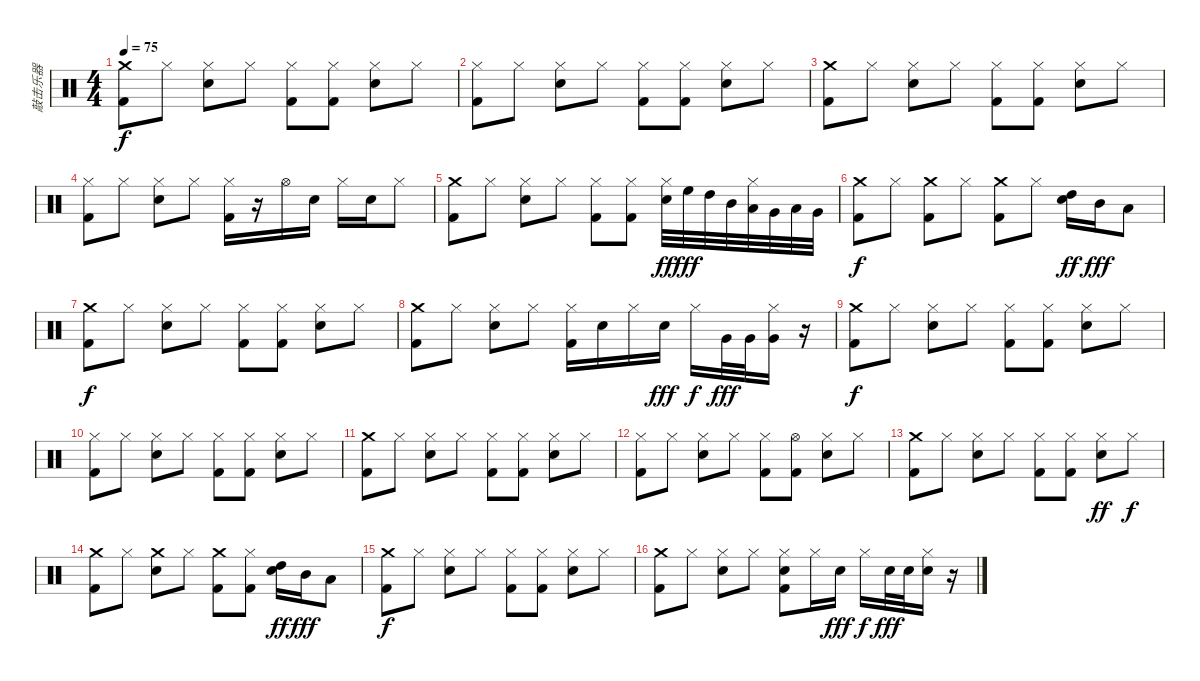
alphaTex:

\track ("敲击乐器" "敲击乐器") {instrument percussion}
\staff {score}
\articulation defaults
\ts (4 4)
\tempo 75
\clef neutral
\ks c
("Crash medium (hit)" "Kick (hit) 2").8{dy f} "Hi-Hat (closed)".8 ("Hi-Hat (closed)" "Electric Snare (hit)").8 "Hi-Hat (closed)".8 ("Hi-Hat (closed)" "Kick (hit) 2").8 ("Hi-Hat (closed)" "Kick (hit) 2").8 ("Hi-Hat (closed)" "Electric Snare (hit)").8 "Hi-Hat (closed)".8 |
("Hi-Hat (closed)" "Kick (hit) 2").8 "Hi-Hat (closed)".8 ("Hi-Hat (closed)" "Electric Snare (hit)").8 "Hi-Hat (closed)".8 ("Hi-Hat (closed)" "Kick (hit) 2").8 ("Hi-Hat (closed)" "Kick (hit) 2").8 ("Hi-Hat (closed)" "Electric Snare (hit)").8 "Hi-Hat (closed)".8 |
("Crash medium (hit)" "Kick (hit) 2").8 "Hi-Hat (closed)".8 ("Hi-Hat (closed)" "Electric Snare (hit)").8 "Hi-Hat (closed)".8 ("Hi-Hat (closed)" "Kick (hit) 2").8 ("Hi-Hat (closed)" "Kick (hit) 2").8 ("Hi-Hat (closed)" "Electric Snare (hit)").8 "Hi-Hat (closed)".8 |
("Hi-Hat (closed)" "Kick (hit) 2").8 "Hi-Hat (closed)".8 ("Hi-Hat (closed)" "Electric Snare (hit)").8 "Hi-Hat (closed)".8 ("Hi-Hat (closed)" "Kick (hit) 2").16 r.16 "Hi-Hat (open)".16 "Electric Snare (hit)".16 "Hi-Hat (closed)".16 "Electric Snare (hit)".16 "Hi-Hat (closed)".8 |
("Crash medium (hit)" "Kick (hit) 2").8 "Hi-Hat (closed)".8 ("Hi-Hat (closed)" "Electric Snare (hit)").8 "Hi-Hat (closed)".8 ("Hi-Hat (closed)" "Kick (hit) 2").8 ("Hi-Hat (closed)" "Kick (hit) 2").8 ("Hi-Hat (closed)" "Electric Snare (hit)").32{dy ff} "High Floor Tom (hit)".32{dy fff} "High Tom (hit)".32 "Mid Tom (hit)".32 ("Hi-Hat (closed)" "Low Tom (hit)").32 "Very Low Tom (hit)".32 "Low Floor Tom (hit)".32 "Very Low Tom (hit)".32 |
("Crash medium (hit)" "Kick (hit) 2").8{dy f} "Hi-Hat (closed)".8 ("Crash medium (hit)" "Kick (hit) 2").8 "Hi-Hat (closed)".8 ("Crash medium (hit)" "Kick (hit) 2").8 "Hi-Hat (closed)".8 ("High Tom (hit)" "Electric Snare (hit)").16{dy ff} "Mid Tom (hit)".16{dy fff} "Low Tom (hit)".8 |
("Crash medium (hit)" "Kick (hit) 2").8{dy f} "Hi-Hat (closed)".8 ("Hi-Hat (closed)" "Electric Snare (hit)").8 "Hi-Hat (closed)".8 ("Hi-Hat (closed)" "Kick (hit) 2").8 ("Hi-Hat (closed)" "Kick (hit) 2").8 ("Hi-Hat (closed)" "Electric Snare (hit)").8 "Hi-Hat (closed)".8 |
("Crash medium (hit)" "Kick (hit) 2").8 "Hi-Hat (closed)".8 ("Hi-Hat (closed)" "Electric Snare (hit)").8 "Hi-Hat (closed)".8 ("Hi-Hat (closed)" "Kick (hit) 2").16 "Electric Snare (hit)".16 "Hi-Hat (closed)".16 "Electric Snare (hit)".16{dy fff} "Hi-Hat (closed)".16{dy f} "Very Low Tom (hit)".32{dy fff} "Very Low Tom (hit)".32 ("Hi-Hat (closed)" "Very Low Tom (hit)").16 r.16 |
("Crash medium (hit)" "Kick (hit) 2").8{dy f} "Hi-Hat (closed)".8 ("Hi-Hat (closed)" "Electric Snare (hit)").8 "Hi-Hat (closed)".8 ("Hi-Hat (closed)" "Kick (hit) 2").8 ("Hi-Hat (closed)" "Kick (hit) 2").8 ("Hi-Hat (closed)" "Electric Snare (hit)").8 "Hi-Hat (closed)".8 |
("Hi-Hat (closed)" "Kick (hit) 2").8 "Hi-Hat (closed)".8 ("Hi-Hat (closed)" "Electric Snare (hit)").8 "Hi-Hat (closed)".8 ("Hi-Hat (closed)" "Kick (hit) 2").8 ("Hi-Hat (closed)" "Kick (hit) 2").8 ("Hi-Hat (closed)" "Electric Snare (hit)").8 "Hi-Hat (closed)".8 |
("Crash medium (hit)" "Kick (hit) 2").8 "Hi-Hat (closed)".8 ("Hi-Hat (closed)" "Electric Snare (hit)").8 "Hi-Hat (closed)".8 ("Hi-Hat (closed)" "Kick (hit) 2").8 ("Hi-Hat (closed)" "Kick (hit) 2").8 ("Hi-Hat (closed)" "Electric Snare (hit)").8 "Hi-Hat (closed)".8 |
("Hi-Hat (closed)" "Kick (hit) 2").8 "Hi-Hat (closed)".8 ("Hi-Hat (closed)" "Electric Snare (hit)").8 "Hi-Hat (closed)".8 ("Hi-Hat (closed)" "Kick (hit) 2").8 ("Hi-Hat (open)" "Kick (hit) 2").8 ("Hi-Hat (closed)" "Electric Snare (hit)").8 "Hi-Hat (closed)".8 |
("Crash medium (hit)" "Kick (hit) 2").8 "Hi-Hat (closed)".8 ("Hi-Hat (closed)" "Electric Snare (hit)").8 "Hi-Hat (closed)".8 ("Hi-Hat (closed)" "Kick (hit) 2").8 ("Hi-Hat (closed)" "Kick (hit) 2").8 ("Hi-Hat (closed)" "Electric Snare (hit)").8{dy ff} "Hi-Hat (closed)".8{dy f} |
("Crash medium (hit)" "Kick (hit) 2").8 "Hi-Hat (closed)".8 ("Crash medium (hit)" "Electric Snare (hit)").8 "Hi-Hat (closed)".8 ("Crash medium (hit)" "Kick (hit) 2").8 ("Hi-Hat (closed)" "Kick (hit) 2").8 ("High Tom (hit)" "Electric Snare (hit)").16{dy ff} "Mid Tom (hit)".16{dy fff} "Low Tom (hit)".8 |
("Crash medium (hit)" "Kick (hit) 2").8{dy f} "Hi-Hat (closed)".8 ("Hi-Hat (closed)" "Electric Snare (hit)").8 "Hi-Hat (closed)".8 ("Hi-Hat (closed)" "Kick (hit) 2").8 ("Hi-Hat (closed)" "Kick (hit) 2").8 ("Hi-Hat (closed)" "Electric Snare (hit)").8 "Hi-Hat (closed)".8 |
("Crash medium (hit)" "Kick (hit) 2").8 "Hi-Hat (closed)".8 ("Hi-Hat (closed)" "Electric Snare (hit)").8 "Hi-Hat (closed)".8 ("Hi-Hat (closed)" "Electric Snare (hit)" "Kick (hit) 2").8 "Hi-Hat (closed)".16 "Electric Snare (hit)".16{dy fff} "Hi-Hat (closed)".16{dy f} "Electric Snare (hit)".32{dy fff} "Electric Snare (hit)".32 ("Hi-Hat (closed)" "Electric Snare (hit)").16 r.16
